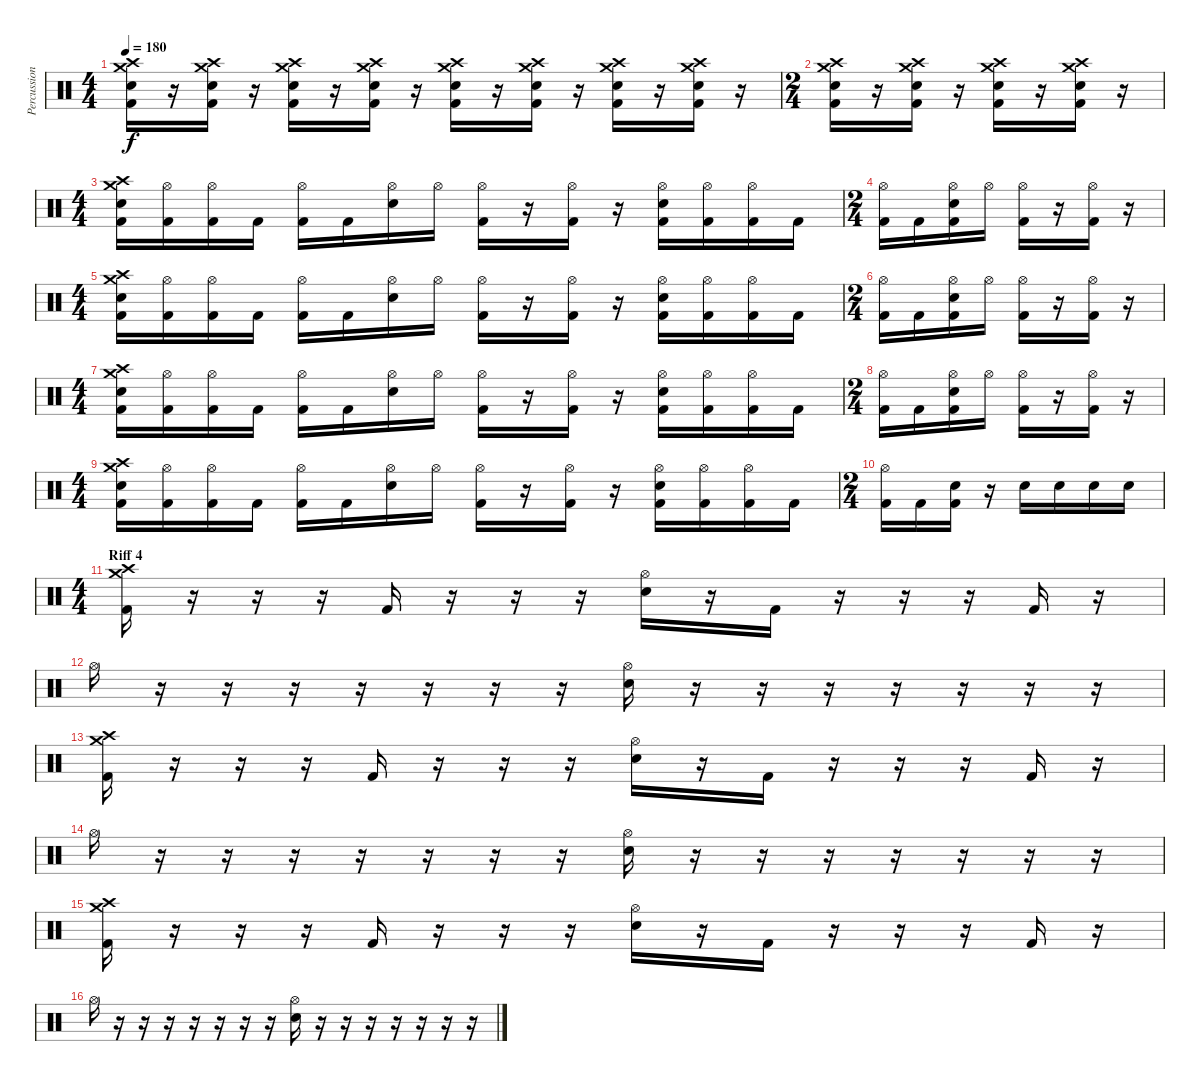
\track ("Percussion" "Percussion") {instrument percussion}
\staff {score}
\articulation defaults
\ts (4 4)
\tempo 180
\clef neutral
\ks c
("Crash medium (hit)" "Crash high (hit)" "Electric Snare (hit)" "Kick (hit) 2").16{dy f} r.16 ("Crash medium (hit)" "Crash high (hit)" "Electric Snare (hit)" "Kick (hit) 2").16 r.16 ("Crash medium (hit)" "Crash high (hit)" "Electric Snare (hit)" "Kick (hit) 2").16 r.16 ("Crash medium (hit)" "Crash high (hit)" "Electric Snare (hit)" "Kick (hit) 2").16 r.16 ("Crash medium (hit)" "Crash high (hit)" "Electric Snare (hit)" "Kick (hit) 2").16 r.16 ("Crash medium (hit)" "Crash high (hit)" "Electric Snare (hit)" "Kick (hit) 2").16 r.16 ("Crash medium (hit)" "Crash high (hit)" "Electric Snare (hit)" "Kick (hit) 2").16 r.16 ("Crash medium (hit)" "Crash high (hit)" "Electric Snare (hit)" "Kick (hit) 2").16 r.16 |
\ts (2 4)
("Crash medium (hit)" "Crash high (hit)" "Electric Snare (hit)" "Kick (hit) 2").16 r.16 ("Crash medium (hit)" "Crash high (hit)" "Electric Snare (hit)" "Kick (hit) 2").16 r.16 ("Crash medium (hit)" "Crash high (hit)" "Electric Snare (hit)" "Kick (hit) 2").16 r.16 ("Crash medium (hit)" "Crash high (hit)" "Electric Snare (hit)" "Kick (hit) 2").16 r.16 |
\ts (4 4)
("Crash medium (hit)" "Crash high (hit)" "Electric Snare (hit)" "Kick (hit) 2").16 ("Hi-Hat (open)" "Kick (hit) 2").16 ("Hi-Hat (open)" "Kick (hit) 2").16 "Kick (hit) 2".16 ("Hi-Hat (open)" "Kick (hit) 2").16 "Kick (hit) 2".16 ("Hi-Hat (open)" "Electric Snare (hit)").16 "Hi-Hat (open)".16 ("Hi-Hat (open)" "Kick (hit) 2").16 r.16 ("Hi-Hat (open)" "Kick (hit) 2").16 r.16 ("Hi-Hat (open)" "Electric Snare (hit)" "Kick (hit) 2").16 ("Hi-Hat (open)" "Kick (hit) 2").16 ("Hi-Hat (open)" "Kick (hit) 2").16 "Kick (hit) 2".16 |
\ts (2 4)
("Hi-Hat (open)" "Kick (hit) 2").16 "Kick (hit) 2".16 ("Hi-Hat (open)" "Electric Snare (hit)" "Kick (hit) 2").16 "Hi-Hat (open)".16 ("Hi-Hat (open)" "Kick (hit) 2").16 r.16 ("Hi-Hat (open)" "Kick (hit) 2").16 r.16 |
\ts (4 4)
("Crash medium (hit)" "Crash high (hit)" "Electric Snare (hit)" "Kick (hit) 2").16 ("Hi-Hat (open)" "Kick (hit) 2").16 ("Hi-Hat (open)" "Kick (hit) 2").16 "Kick (hit) 2".16 ("Hi-Hat (open)" "Kick (hit) 2").16 "Kick (hit) 2".16 ("Hi-Hat (open)" "Electric Snare (hit)").16 "Hi-Hat (open)".16 ("Hi-Hat (open)" "Kick (hit) 2").16 r.16 ("Hi-Hat (open)" "Kick (hit) 2").16 r.16 ("Hi-Hat (open)" "Electric Snare (hit)" "Kick (hit) 2").16 ("Hi-Hat (open)" "Kick (hit) 2").16 ("Hi-Hat (open)" "Kick (hit) 2").16 "Kick (hit) 2".16 |
\ts (2 4)
("Hi-Hat (open)" "Kick (hit) 2").16 "Kick (hit) 2".16 ("Hi-Hat (open)" "Electric Snare (hit)" "Kick (hit) 2").16 "Hi-Hat (open)".16 ("Hi-Hat (open)" "Kick (hit) 2").16 r.16 ("Hi-Hat (open)" "Kick (hit) 2").16 r.16 |
\ts (4 4)
("Crash medium (hit)" "Crash high (hit)" "Electric Snare (hit)" "Kick (hit) 2").16 ("Hi-Hat (open)" "Kick (hit) 2").16 ("Hi-Hat (open)" "Kick (hit) 2").16 "Kick (hit) 2".16 ("Hi-Hat (open)" "Kick (hit) 2").16 "Kick (hit) 2".16 ("Hi-Hat (open)" "Electric Snare (hit)").16 "Hi-Hat (open)".16 ("Hi-Hat (open)" "Kick (hit) 2").16 r.16 ("Hi-Hat (open)" "Kick (hit) 2").16 r.16 ("Hi-Hat (open)" "Electric Snare (hit)" "Kick (hit) 2").16 ("Hi-Hat (open)" "Kick (hit) 2").16 ("Hi-Hat (open)" "Kick (hit) 2").16 "Kick (hit) 2".16 |
\ts (2 4)
("Hi-Hat (open)" "Kick (hit) 2").16 "Kick (hit) 2".16 ("Hi-Hat (open)" "Electric Snare (hit)" "Kick (hit) 2").16 "Hi-Hat (open)".16 ("Hi-Hat (open)" "Kick (hit) 2").16 r.16 ("Hi-Hat (open)" "Kick (hit) 2").16 r.16 |
\ts (4 4)
("Crash medium (hit)" "Crash high (hit)" "Electric Snare (hit)" "Kick (hit) 2").16 ("Hi-Hat (open)" "Kick (hit) 2").16 ("Hi-Hat (open)" "Kick (hit) 2").16 "Kick (hit) 2".16 ("Hi-Hat (open)" "Kick (hit) 2").16 "Kick (hit) 2".16 ("Hi-Hat (open)" "Electric Snare (hit)").16 "Hi-Hat (open)".16 ("Hi-Hat (open)" "Kick (hit) 2").16 r.16 ("Hi-Hat (open)" "Kick (hit) 2").16 r.16 ("Hi-Hat (open)" "Electric Snare (hit)" "Kick (hit) 2").16 ("Hi-Hat (open)" "Kick (hit) 2").16 ("Hi-Hat (open)" "Kick (hit) 2").16 "Kick (hit) 2".16 |
\ts (2 4)
("Hi-Hat (open)" "Kick (hit) 2").16 "Kick (hit) 2".16 ("Electric Snare (hit)" "Kick (hit) 2").16 r.16 "Electric Snare (hit)".16 "Electric Snare (hit)".16 "Electric Snare (hit)".16 "Electric Snare (hit)".16 |
\ts (4 4)
\section ("" "Riff 4")
("Crash medium (hit)" "Crash high (hit)" "Kick (hit) 2").16 r.16 r.16 r.16 "Kick (hit) 2".16 r.16 r.16 r.16 ("Hi-Hat (open)" "Electric Snare (hit)").16 r.16 "Kick (hit) 2".16 r.16 r.16 r.16 "Kick (hit) 2".16 r.16 |
"Hi-Hat (open)".16 r.16 r.16 r.16 r.16 r.16 r.16 r.16 ("Hi-Hat (open)" "Electric Snare (hit)").16 r.16 r.16 r.16 r.16 r.16 r.16 r.16 |
("Crash medium (hit)" "Crash high (hit)" "Kick (hit) 2").16 r.16 r.16 r.16 "Kick (hit) 2".16 r.16 r.16 r.16 ("Hi-Hat (open)" "Electric Snare (hit)").16 r.16 "Kick (hit) 2".16 r.16 r.16 r.16 "Kick (hit) 2".16 r.16 |
"Hi-Hat (open)".16 r.16 r.16 r.16 r.16 r.16 r.16 r.16 ("Hi-Hat (open)" "Electric Snare (hit)").16 r.16 r.16 r.16 r.16 r.16 r.16 r.16 |
("Crash medium (hit)" "Crash high (hit)" "Kick (hit) 2").16 r.16 r.16 r.16 "Kick (hit) 2".16 r.16 r.16 r.16 ("Hi-Hat (open)" "Electric Snare (hit)").16 r.16 "Kick (hit) 2".16 r.16 r.16 r.16 "Kick (hit) 2".16 r.16 |
"Hi-Hat (open)".16 r.16 r.16 r.16 r.16 r.16 r.16 r.16 ("Hi-Hat (open)" "Electric Snare (hit)").16 r.16 r.16 r.16 r.16 r.16 r.16 r.16
